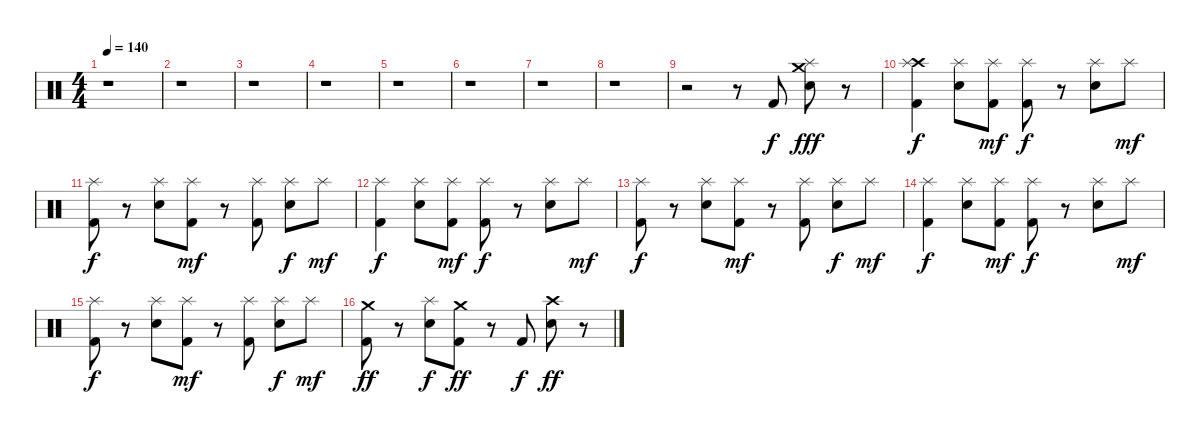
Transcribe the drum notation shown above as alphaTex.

\track "" {instrument percussion}
\staff {score}
\articulation defaults
\ts (4 4)
\tempo 140
\clef neutral
\ks c
r.1{dy f} |
r.1 |
r.1 |
r.1 |
r.1 |
r.1 |
r.1 |
r.1 |
r.2 r.8 "Kick (hit) 2".8 ("Crash medium (hit)" "Splash (hit)" "Electric Snare (hit)").8{dy fff} r.8 |
("Crash high (hit)" "Splash (hit)" "Kick (hit) 2").4{dy f} ("Splash (hit)" "Electric Snare (hit)").8 ("Splash (hit)" "Kick (hit) 2").8{dy mf} ("Splash (hit)" "Kick (hit) 2").8{dy f} r.8 ("Splash (hit)" "Electric Snare (hit)").8 "Splash (hit)".8{dy mf} |
("Splash (hit)" "Kick (hit) 2").8{dy f} r.8 ("Splash (hit)" "Electric Snare (hit)").8 ("Splash (hit)" "Kick (hit) 2").8{dy mf} r.8 ("Splash (hit)" "Kick (hit) 2").8 ("Splash (hit)" "Electric Snare (hit)").8{dy f} "Splash (hit)".8{dy mf} |
("Splash (hit)" "Kick (hit) 2").4{dy f} ("Splash (hit)" "Electric Snare (hit)").8 ("Splash (hit)" "Kick (hit) 2").8{dy mf} ("Splash (hit)" "Kick (hit) 2").8{dy f} r.8 ("Splash (hit)" "Electric Snare (hit)").8 "Splash (hit)".8{dy mf} |
("Splash (hit)" "Kick (hit) 2").8{dy f} r.8 ("Splash (hit)" "Electric Snare (hit)").8 ("Splash (hit)" "Kick (hit) 2").8{dy mf} r.8 ("Splash (hit)" "Kick (hit) 2").8 ("Splash (hit)" "Electric Snare (hit)").8{dy f} "Splash (hit)".8{dy mf} |
("Splash (hit)" "Kick (hit) 2").4{dy f} ("Splash (hit)" "Electric Snare (hit)").8 ("Splash (hit)" "Kick (hit) 2").8{dy mf} ("Splash (hit)" "Kick (hit) 2").8{dy f} r.8 ("Splash (hit)" "Electric Snare (hit)").8 "Splash (hit)".8{dy mf} |
("Splash (hit)" "Kick (hit) 2").8{dy f} r.8 ("Splash (hit)" "Electric Snare (hit)").8 ("Splash (hit)" "Kick (hit) 2").8{dy mf} r.8 ("Splash (hit)" "Kick (hit) 2").8 ("Splash (hit)" "Electric Snare (hit)").8{dy f} "Splash (hit)".8{dy mf} |
("Crash medium (hit)" "Kick (hit) 2").8{dy ff} r.8 ("Splash (hit)" "Electric Snare (hit)").8{dy f} ("Crash medium (hit)" "Kick (hit) 2").8{dy ff} r.8 "Kick (hit) 2".8{dy f} ("Crash high (hit)" "Electric Snare (hit)").8{dy ff} r.8
